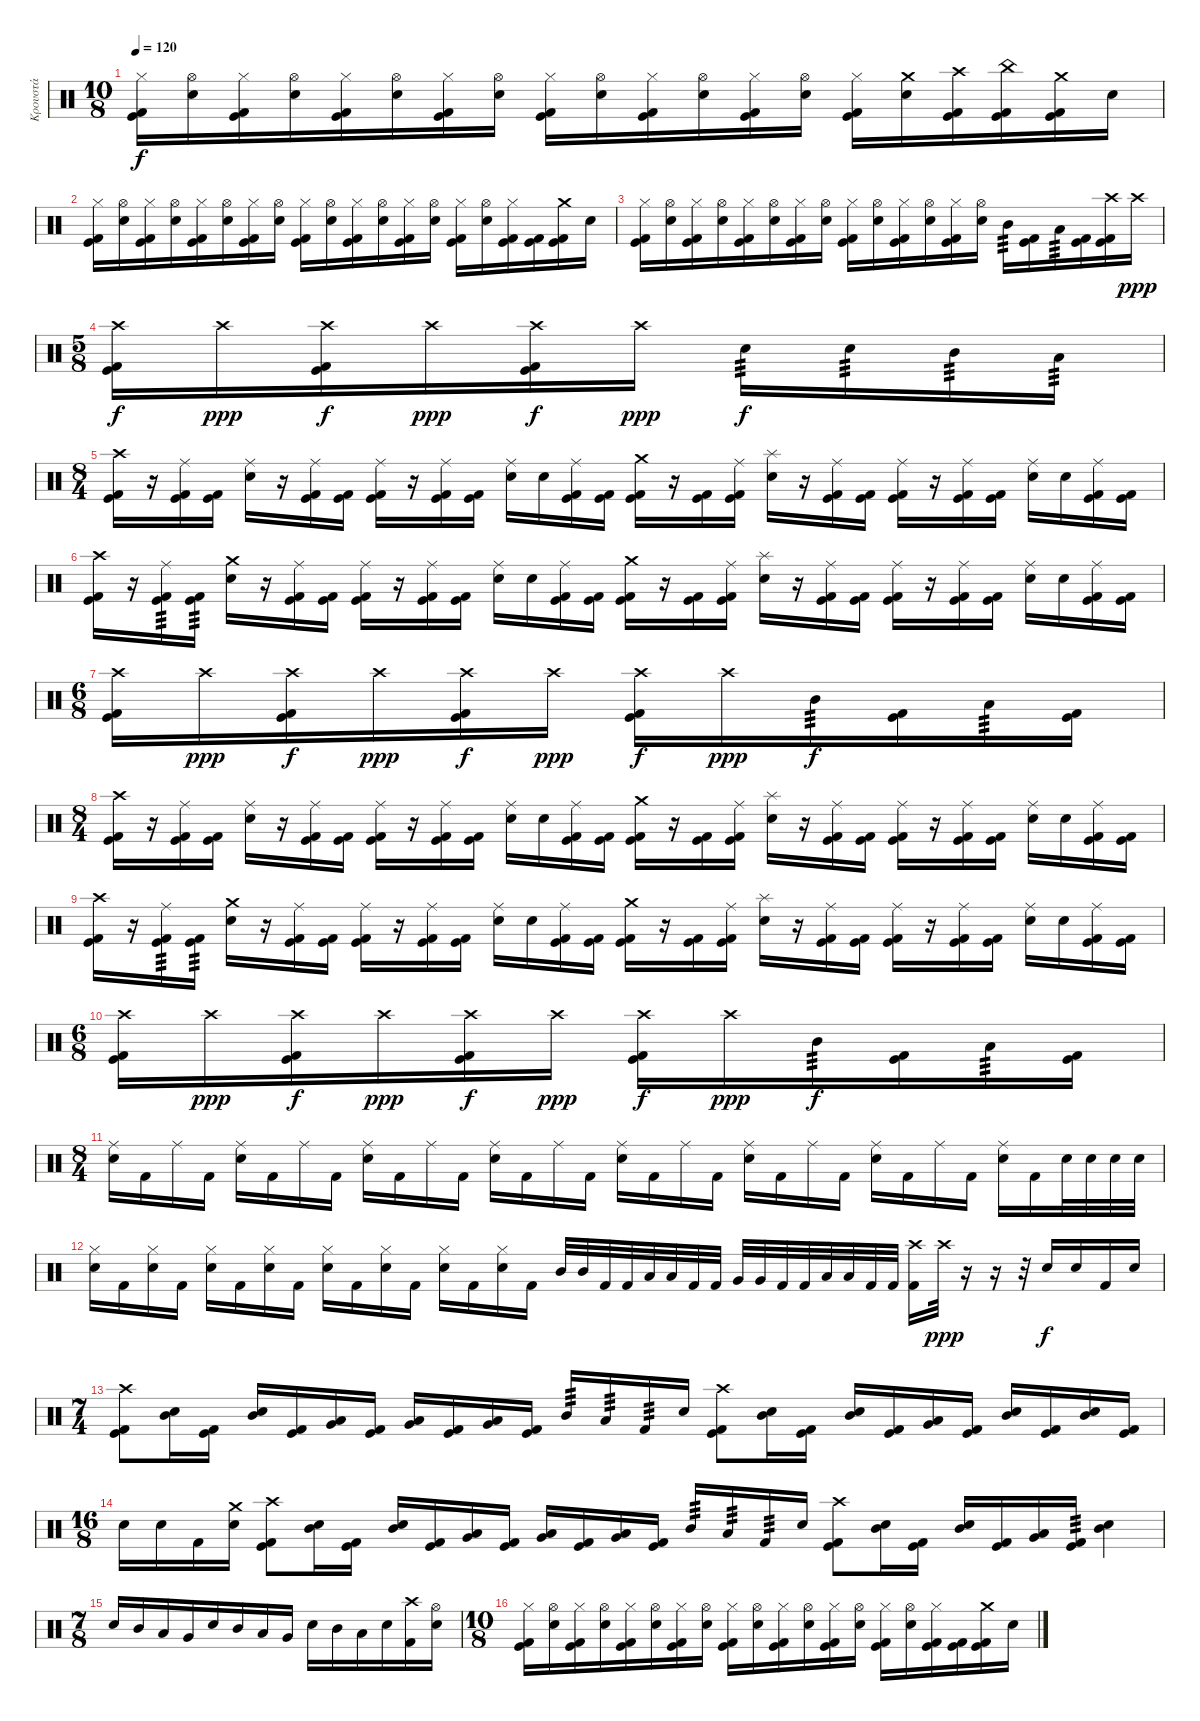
\track ("Κρουστά" "Κρουστά") {instrument percussion}
\staff {score}
\articulation defaults
\ts (10 8)
\tempo 120
\clef neutral
\ks c
("Hi-Hat (closed)" "Kick (hit)" "Kick (hit) 2").16{dy f} ("Hi-Hat (open)" "Snare (hit) 2").16 ("Hi-Hat (closed)" "Kick (hit)" "Kick (hit) 2").16 ("Hi-Hat (open)" "Snare (hit) 2").16 ("Hi-Hat (closed)" "Kick (hit)" "Kick (hit) 2").16 ("Hi-Hat (open)" "Snare (hit) 2").16 ("Hi-Hat (closed)" "Kick (hit)" "Kick (hit) 2").16 ("Hi-Hat (open)" "Snare (hit) 2").16 ("Hi-Hat (closed)" "Kick (hit)" "Kick (hit) 2").16 ("Hi-Hat (open)" "Snare (hit) 2").16 ("Hi-Hat (closed)" "Kick (hit)" "Kick (hit) 2").16 ("Hi-Hat (open)" "Snare (hit) 2").16 ("Hi-Hat (closed)" "Kick (hit)" "Kick (hit) 2").16 ("Hi-Hat (open)" "Snare (hit) 2").16 ("Hi-Hat (closed)" "Kick (hit)" "Kick (hit) 2").16 ("Crash medium (hit)" "Snare (hit) 2").16 ("Crash high (hit)" "Kick (hit)" "Kick (hit) 2").16 ("China (hit)" "Kick (hit)" "Kick (hit) 2").16 ("Crash medium (hit)" "Kick (hit)" "Kick (hit) 2").16 "Snare (hit) 2".16 |
("Hi-Hat (closed)" "Kick (hit)" "Kick (hit) 2").16 ("Hi-Hat (open)" "Snare (hit) 2").16 ("Hi-Hat (closed)" "Kick (hit)" "Kick (hit) 2").16 ("Hi-Hat (open)" "Snare (hit) 2").16 ("Hi-Hat (closed)" "Kick (hit)" "Kick (hit) 2").16 ("Hi-Hat (open)" "Snare (hit) 2").16 ("Hi-Hat (closed)" "Kick (hit)" "Kick (hit) 2").16 ("Hi-Hat (open)" "Snare (hit) 2").16 ("Hi-Hat (closed)" "Kick (hit)" "Kick (hit) 2").16 ("Hi-Hat (open)" "Snare (hit) 2").16 ("Hi-Hat (closed)" "Kick (hit)" "Kick (hit) 2").16 ("Hi-Hat (open)" "Snare (hit) 2").16 ("Hi-Hat (closed)" "Kick (hit)" "Kick (hit) 2").16 ("Hi-Hat (open)" "Snare (hit) 2").16 ("Hi-Hat (closed)" "Kick (hit)" "Kick (hit) 2").16 ("Hi-Hat (open)" "Snare (hit) 2").16 ("Hi-Hat (closed)" "Kick (hit)" "Kick (hit) 2").16 ("Kick (hit)" "Kick (hit) 2").16 ("Crash medium (hit)" "Kick (hit)" "Kick (hit) 2").16 "Snare (hit) 2".16 |
("Hi-Hat (closed)" "Kick (hit)" "Kick (hit) 2").16 ("Hi-Hat (open)" "Snare (hit) 2").16 ("Hi-Hat (closed)" "Kick (hit)" "Kick (hit) 2").16 ("Hi-Hat (open)" "Snare (hit) 2").16 ("Hi-Hat (closed)" "Kick (hit)" "Kick (hit) 2").16 ("Hi-Hat (open)" "Snare (hit) 2").16 ("Hi-Hat (closed)" "Kick (hit)" "Kick (hit) 2").16 ("Hi-Hat (open)" "Snare (hit) 2").16 ("Hi-Hat (closed)" "Kick (hit)" "Kick (hit) 2").16 ("Hi-Hat (open)" "Snare (hit) 2").16 ("Hi-Hat (closed)" "Kick (hit)" "Kick (hit) 2").16 ("Hi-Hat (open)" "Snare (hit) 2").16 ("Hi-Hat (closed)" "Kick (hit)" "Kick (hit) 2").16 ("Hi-Hat (open)" "Snare (hit) 2").16 "Mid Tom (hit)".16{tp 3} ("Kick (hit)" "Kick (hit) 2").16 "Low Tom (hit)".16{tp 3} ("Kick (hit)" "Kick (hit) 2").16 ("Crash high (hit)" "Kick (hit)" "Kick (hit) 2").16 "Crash high (hit)".16{dy ppp} |
\ts (5 8)
("Crash high (hit)" "Kick (hit)" "Kick (hit) 2").16{dy f} "Crash high (hit)".16{dy ppp} ("Crash high (hit)" "Kick (hit)" "Kick (hit) 2").16{dy f} "Crash high (hit)".16{dy ppp} ("Crash high (hit)" "Kick (hit)" "Kick (hit) 2").16{dy f} "Crash high (hit)".16{dy ppp} "Snare (hit) 2".16{tp 3 dy f} "Snare (hit) 2".16{tp 3} "Mid Tom (hit)".16{tp 3} "Low Tom (hit)".16{tp 3} |
\ts (8 4)
("Crash high (hit)" "Kick (hit)" "Kick (hit) 2").16 r.16 ("Ride (middle)" "Kick (hit)" "Kick (hit) 2").16 ("Kick (hit)" "Kick (hit) 2").16 ("Ride (middle)" "Snare (hit) 2").16 r.16 ("Ride (middle)" "Kick (hit)" "Kick (hit) 2").16 ("Kick (hit)" "Kick (hit) 2").16 ("Ride (middle)" "Kick (hit)" "Kick (hit) 2").16 r.16 ("Ride (middle)" "Kick (hit)" "Kick (hit) 2").16 ("Kick (hit)" "Kick (hit) 2").16 ("Ride (middle)" "Snare (hit) 2").16 "Snare (hit) 2".16 ("Ride (middle)" "Kick (hit)" "Kick (hit) 2").16 ("Kick (hit)" "Kick (hit) 2").16 ("Crash medium (hit)" "Kick (hit)" "Kick (hit) 2").16 r.16 ("Kick (hit)" "Kick (hit) 2").16 ("Ride (middle)" "Kick (hit)" "Kick (hit) 2").16 ("Splash (hit)" "Snare (hit) 2").16 r.16 ("Ride (middle)" "Kick (hit)" "Kick (hit) 2").16 ("Kick (hit)" "Kick (hit) 2").16 ("Ride (middle)" "Kick (hit)" "Kick (hit) 2").16 r.16 ("Ride (middle)" "Kick (hit)" "Kick (hit) 2").16 ("Kick (hit)" "Kick (hit) 2").16 ("Ride (middle)" "Snare (hit) 2").16 "Snare (hit) 2".16 ("Ride (middle)" "Kick (hit)" "Kick (hit) 2").16 ("Kick (hit)" "Kick (hit) 2").16 |
("Crash high (hit)" "Kick (hit)" "Kick (hit) 2").16 r.16 ("Ride (middle)" "Kick (hit)" "Kick (hit) 2").16{tp 3} ("Kick (hit)" "Kick (hit) 2").16{tp 3} ("Crash medium (hit)" "Snare (hit) 2").16 r.16 ("Ride (middle)" "Kick (hit)" "Kick (hit) 2").16 ("Kick (hit)" "Kick (hit) 2").16 ("Ride (middle)" "Kick (hit)" "Kick (hit) 2").16 r.16 ("Ride (middle)" "Kick (hit)" "Kick (hit) 2").16 ("Kick (hit)" "Kick (hit) 2").16 ("Ride (middle)" "Snare (hit) 2").16 "Snare (hit) 2".16 ("Ride (middle)" "Kick (hit)" "Kick (hit) 2").16 ("Kick (hit)" "Kick (hit) 2").16 ("Crash medium (hit)" "Kick (hit)" "Kick (hit) 2").16 r.16 ("Kick (hit)" "Kick (hit) 2").16 ("Ride (middle)" "Kick (hit)" "Kick (hit) 2").16 ("Splash (hit)" "Snare (hit) 2").16 r.16 ("Ride (middle)" "Kick (hit)" "Kick (hit) 2").16 ("Kick (hit)" "Kick (hit) 2").16 ("Ride (middle)" "Kick (hit)" "Kick (hit) 2").16 r.16 ("Ride (middle)" "Kick (hit)" "Kick (hit) 2").16 ("Kick (hit)" "Kick (hit) 2").16 ("Ride (middle)" "Snare (hit) 2").16 "Snare (hit) 2".16 ("Ride (middle)" "Kick (hit)" "Kick (hit) 2").16 ("Kick (hit)" "Kick (hit) 2").16 |
\ts (6 8)
("Crash high (hit)" "Kick (hit)" "Kick (hit) 2").16 "Crash high (hit)".16{dy ppp} ("Crash high (hit)" "Kick (hit)" "Kick (hit) 2").16{dy f} "Crash high (hit)".16{dy ppp} ("Crash high (hit)" "Kick (hit)" "Kick (hit) 2").16{dy f} "Crash high (hit)".16{dy ppp} ("Crash high (hit)" "Kick (hit)" "Kick (hit) 2").16{dy f} "Crash high (hit)".16{dy ppp} "Mid Tom (hit)".16{tp 3 dy f} ("Kick (hit)" "Kick (hit) 2").16 "Low Tom (hit)".16{tp 3} ("Kick (hit)" "Kick (hit) 2").16 |
\ts (8 4)
("Crash high (hit)" "Kick (hit)" "Kick (hit) 2").16 r.16 ("Ride (middle)" "Kick (hit)" "Kick (hit) 2").16 ("Kick (hit)" "Kick (hit) 2").16 ("Ride (middle)" "Snare (hit) 2").16 r.16 ("Ride (middle)" "Kick (hit)" "Kick (hit) 2").16 ("Kick (hit)" "Kick (hit) 2").16 ("Ride (middle)" "Kick (hit)" "Kick (hit) 2").16 r.16 ("Ride (middle)" "Kick (hit)" "Kick (hit) 2").16 ("Kick (hit)" "Kick (hit) 2").16 ("Ride (middle)" "Snare (hit) 2").16 "Snare (hit) 2".16 ("Ride (middle)" "Kick (hit)" "Kick (hit) 2").16 ("Kick (hit)" "Kick (hit) 2").16 ("Crash medium (hit)" "Kick (hit)" "Kick (hit) 2").16 r.16 ("Kick (hit)" "Kick (hit) 2").16 ("Ride (middle)" "Kick (hit)" "Kick (hit) 2").16 ("Splash (hit)" "Snare (hit) 2").16 r.16 ("Ride (middle)" "Kick (hit)" "Kick (hit) 2").16 ("Kick (hit)" "Kick (hit) 2").16 ("Ride (middle)" "Kick (hit)" "Kick (hit) 2").16 r.16 ("Ride (middle)" "Kick (hit)" "Kick (hit) 2").16 ("Kick (hit)" "Kick (hit) 2").16 ("Ride (middle)" "Snare (hit) 2").16 "Snare (hit) 2".16 ("Ride (middle)" "Kick (hit)" "Kick (hit) 2").16 ("Kick (hit)" "Kick (hit) 2").16 |
("Crash high (hit)" "Kick (hit)" "Kick (hit) 2").16 r.16 ("Ride (middle)" "Kick (hit)" "Kick (hit) 2").16{tp 3} ("Kick (hit)" "Kick (hit) 2").16{tp 3} ("Crash medium (hit)" "Snare (hit) 2").16 r.16 ("Ride (middle)" "Kick (hit)" "Kick (hit) 2").16 ("Kick (hit)" "Kick (hit) 2").16 ("Ride (middle)" "Kick (hit)" "Kick (hit) 2").16 r.16 ("Ride (middle)" "Kick (hit)" "Kick (hit) 2").16 ("Kick (hit)" "Kick (hit) 2").16 ("Ride (middle)" "Snare (hit) 2").16 "Snare (hit) 2".16 ("Ride (middle)" "Kick (hit)" "Kick (hit) 2").16 ("Kick (hit)" "Kick (hit) 2").16 ("Crash medium (hit)" "Kick (hit)" "Kick (hit) 2").16 r.16 ("Kick (hit)" "Kick (hit) 2").16 ("Ride (middle)" "Kick (hit)" "Kick (hit) 2").16 ("Splash (hit)" "Snare (hit) 2").16 r.16 ("Ride (middle)" "Kick (hit)" "Kick (hit) 2").16 ("Kick (hit)" "Kick (hit) 2").16 ("Ride (middle)" "Kick (hit)" "Kick (hit) 2").16 r.16 ("Ride (middle)" "Kick (hit)" "Kick (hit) 2").16 ("Kick (hit)" "Kick (hit) 2").16 ("Ride (middle)" "Snare (hit) 2").16 "Snare (hit) 2".16 ("Ride (middle)" "Kick (hit)" "Kick (hit) 2").16 ("Kick (hit)" "Kick (hit) 2").16 |
\ts (6 8)
("Crash high (hit)" "Kick (hit)" "Kick (hit) 2").16 "Crash high (hit)".16{dy ppp} ("Crash high (hit)" "Kick (hit)" "Kick (hit) 2").16{dy f} "Crash high (hit)".16{dy ppp} ("Crash high (hit)" "Kick (hit)" "Kick (hit) 2").16{dy f} "Crash high (hit)".16{dy ppp} ("Crash high (hit)" "Kick (hit)" "Kick (hit) 2").16{dy f} "Crash high (hit)".16{dy ppp} "Mid Tom (hit)".16{tp 3 dy f} ("Kick (hit)" "Kick (hit) 2").16 "Low Tom (hit)".16{tp 3} ("Kick (hit)" "Kick (hit) 2").16 |
\ts (8 4)
("Ride (middle)" "Snare (hit) 2").16 "Kick (hit) 2".16 "Ride (middle)".16 "Kick (hit) 2".16 ("Ride (middle)" "Snare (hit) 2").16 "Kick (hit) 2".16 "Ride (middle)".16 "Kick (hit) 2".16 ("Ride (middle)" "Snare (hit) 2").16 "Kick (hit) 2".16 "Ride (middle)".16 "Kick (hit) 2".16 ("Ride (middle)" "Snare (hit) 2").16 "Kick (hit) 2".16 "Ride (middle)".16 "Kick (hit) 2".16 ("Ride (middle)" "Snare (hit) 2").16 "Kick (hit) 2".16 "Ride (middle)".16 "Kick (hit) 2".16 ("Ride (middle)" "Snare (hit) 2").16 "Kick (hit) 2".16 "Ride (middle)".16 "Kick (hit) 2".16 ("Ride (middle)" "Snare (hit) 2").16 "Kick (hit) 2".16 "Ride (middle)".16 "Kick (hit) 2".16 ("Ride (middle)" "Snare (hit) 2").16 "Kick (hit) 2".16 "Snare (hit) 2".32 "Snare (hit) 2".32 "Snare (hit) 2".32 "Snare (hit) 2".32 |
("Hi-Hat (closed)" "Snare (hit) 2").16 "Kick (hit) 2".16 ("Hi-Hat (closed)" "Snare (hit) 2").16 "Kick (hit) 2".16 ("Hi-Hat (closed)" "Snare (hit) 2").16 "Kick (hit) 2".16 ("Hi-Hat (closed)" "Snare (hit) 2").16 "Kick (hit) 2".16 ("Hi-Hat (closed)" "Snare (hit) 2").16 "Kick (hit) 2".16 ("Hi-Hat (closed)" "Snare (hit) 2").16 "Kick (hit) 2".16 ("Hi-Hat (closed)" "Snare (hit) 2").16 "Kick (hit) 2".16 ("Hi-Hat (closed)" "Snare (hit) 2").16 "Kick (hit) 2".16 "Mid Tom (hit)".32 "Mid Tom (hit)".32 "Kick (hit) 2".32 "Kick (hit) 2".32 "Low Tom (hit)".32 "Low Tom (hit)".32 "Kick (hit) 2".32 "Kick (hit) 2".32 "Very Low Tom (hit)".32 "Very Low Tom (hit)".32 "Kick (hit) 2".32 "Kick (hit) 2".32 "Low Floor Tom (hit)".32 "Low Floor Tom (hit)".32 "Kick (hit) 2".32 "Kick (hit) 2".32 ("Crash high (hit)" "Kick (hit) 2").16 "Crash high (hit)".32{dy ppp} r.16 r.16 r.32 "Snare (hit) 2".16{dy f} "Snare (hit) 2".16 "Kick (hit) 2".16 "Snare (hit) 2".16 |
\ts (7 4)
("Crash high (hit)" "Kick (hit)" "Kick (hit) 2").8 ("Mid Tom (hit)" "Snare (hit) 2").16 ("Kick (hit)" "Kick (hit) 2").16 ("Mid Tom (hit)" "Snare (hit) 2").16 ("Kick (hit)" "Kick (hit) 2").16 ("Very Low Tom (hit)" "Low Tom (hit)").16 ("Kick (hit)" "Kick (hit) 2").16 ("Very Low Tom (hit)" "Low Tom (hit)").16 ("Kick (hit)" "Kick (hit) 2").16 ("Very Low Tom (hit)" "Low Tom (hit)").16 ("Kick (hit)" "Kick (hit) 2").16 "Mid Tom (hit)".16{tp 3} "Low Tom (hit)".16{tp 3} "Kick (hit) 2".16{tp 3} "Snare (hit) 2".16 ("Crash high (hit)" "Kick (hit)" "Kick (hit) 2").8 ("Mid Tom (hit)" "Snare (hit) 2").16 ("Kick (hit)" "Kick (hit) 2").16 ("Mid Tom (hit)" "Snare (hit) 2").16 ("Kick (hit)" "Kick (hit) 2").16 ("Very Low Tom (hit)" "Low Tom (hit)").16 ("Kick (hit)" "Kick (hit) 2").16 ("Mid Tom (hit)" "Snare (hit) 2").16 ("Kick (hit)" "Kick (hit) 2").16 ("Mid Tom (hit)" "Snare (hit) 2").16 ("Kick (hit)" "Kick (hit) 2").16 |
\ts (16 8)
"Snare (hit) 2".16 "Snare (hit) 2".16 "Kick (hit) 2".16 ("Crash medium (hit)" "Snare (hit) 2").16 ("Crash high (hit)" "Kick (hit)" "Kick (hit) 2").8 ("Mid Tom (hit)" "Snare (hit) 2").16 ("Kick (hit)" "Kick (hit) 2").16 ("Mid Tom (hit)" "Snare (hit) 2").16 ("Kick (hit)" "Kick (hit) 2").16 ("Very Low Tom (hit)" "Low Tom (hit)").16 ("Kick (hit)" "Kick (hit) 2").16 ("Very Low Tom (hit)" "Low Tom (hit)").16 ("Kick (hit)" "Kick (hit) 2").16 ("Very Low Tom (hit)" "Low Tom (hit)").16 ("Kick (hit)" "Kick (hit) 2").16 "Mid Tom (hit)".16{tp 3} "Low Tom (hit)".16{tp 3} "Kick (hit) 2".16{tp 3} "Snare (hit) 2".16 ("Crash high (hit)" "Kick (hit)" "Kick (hit) 2").8 ("Mid Tom (hit)" "Snare (hit) 2").16 ("Kick (hit)" "Kick (hit) 2").16 ("Mid Tom (hit)" "Snare (hit) 2").16 ("Kick (hit)" "Kick (hit) 2").16 ("Very Low Tom (hit)" "Low Tom (hit)").16 ("Kick (hit)" "Kick (hit) 2").16{tp 3} ("Mid Tom (hit)" "Snare (hit) 2").4 |
\ts (7 8)
"Snare (hit) 2".16 "Mid Tom (hit)".16 "Low Tom (hit)".16 "Very Low Tom (hit)".16 "Snare (hit) 2".16 "Mid Tom (hit)".16 "Low Tom (hit)".16 "Very Low Tom (hit)".16 "Snare (hit) 2".16 "Mid Tom (hit)".16 "Low Tom (hit)".16 "Snare (hit) 2".16 ("Crash high (hit)" "Kick (hit) 2").16 ("Hi-Hat (open)" "Snare (hit) 2").16 |
\ts (10 8)
("Hi-Hat (closed)" "Kick (hit)" "Kick (hit) 2").16 ("Hi-Hat (open)" "Snare (hit) 2").16 ("Hi-Hat (closed)" "Kick (hit)" "Kick (hit) 2").16 ("Hi-Hat (open)" "Snare (hit) 2").16 ("Hi-Hat (closed)" "Kick (hit)" "Kick (hit) 2").16 ("Hi-Hat (open)" "Snare (hit) 2").16 ("Hi-Hat (closed)" "Kick (hit)" "Kick (hit) 2").16 ("Hi-Hat (open)" "Snare (hit) 2").16 ("Hi-Hat (closed)" "Kick (hit)" "Kick (hit) 2").16 ("Hi-Hat (open)" "Snare (hit) 2").16 ("Hi-Hat (closed)" "Kick (hit)" "Kick (hit) 2").16 ("Hi-Hat (open)" "Snare (hit) 2").16 ("Hi-Hat (closed)" "Kick (hit)" "Kick (hit) 2").16 ("Hi-Hat (open)" "Snare (hit) 2").16 ("Hi-Hat (closed)" "Kick (hit)" "Kick (hit) 2").16 ("Hi-Hat (open)" "Snare (hit) 2").16 ("Hi-Hat (closed)" "Kick (hit)" "Kick (hit) 2").16 ("Kick (hit)" "Kick (hit) 2").16 ("Crash medium (hit)" "Kick (hit)" "Kick (hit) 2").16 "Snare (hit) 2".16
